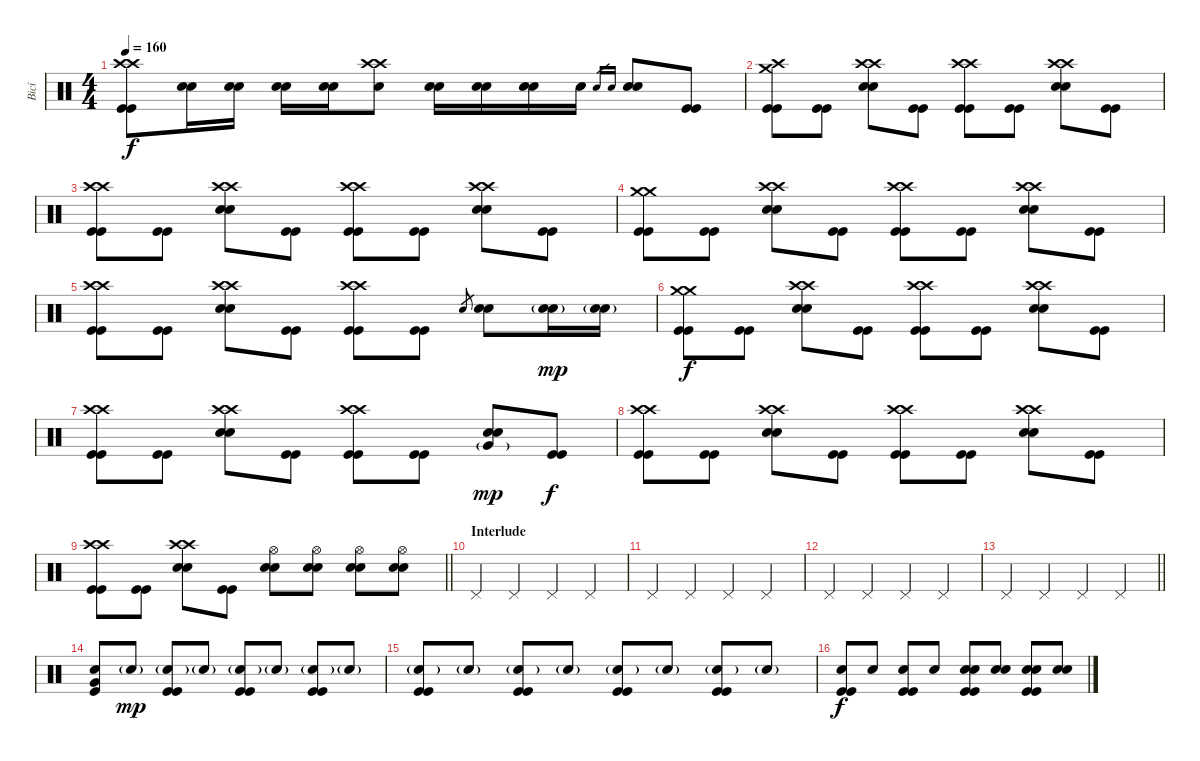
\track ("Bicí" "Bicí") {instrument percussion}
\staff {score}
\articulation defaults
\ts (4 4)
\tempo 160
\clef neutral
\ks c
("Crash high (hit)" "Crash high (hit)" "Kick (hit)" "Kick (hit)").8{dy f} ("Electric Snare (hit)" "Electric Snare (hit)").16 ("Electric Snare (hit)" "Electric Snare (hit)").16 ("Electric Snare (hit)" "Electric Snare (hit)").16 ("Electric Snare (hit)" "Electric Snare (hit)").16 ("Crash high (hit)" "Crash high (hit)" "Snare (hit)").8 ("Electric Snare (hit)" "Electric Snare (hit)").16 ("Electric Snare (hit)" "Electric Snare (hit)").16 ("Electric Snare (hit)" "Electric Snare (hit)").16 "Snare (hit)".16 "Electric Snare (hit)".16{gr} "Electric Snare (hit)".16{gr} ("Electric Snare (hit)" "Electric Snare (hit)").8 ("Kick (hit)" "Kick (hit)").8 |
("Crash medium (hit)" "Crash high (hit)" "Kick (hit)" "Kick (hit)").8 ("Kick (hit)" "Kick (hit)").8 ("Crash high (hit)" "Crash high (hit)" "Electric Snare (hit)" "Electric Snare (hit)").8 ("Kick (hit)" "Kick (hit)").8 ("Crash high (hit)" "Crash high (hit)" "Kick (hit)" "Kick (hit)").8 ("Kick (hit)" "Kick (hit)").8 ("Crash high (hit)" "Crash high (hit)" "Electric Snare (hit)" "Electric Snare (hit)").8 ("Kick (hit)" "Kick (hit)").8 |
("Crash high (hit)" "Crash high (hit)" "Kick (hit)" "Kick (hit)").8 ("Kick (hit)" "Kick (hit)").8 ("Crash high (hit)" "Crash high (hit)" "Electric Snare (hit)" "Electric Snare (hit)").8 ("Kick (hit)" "Kick (hit)").8 ("Crash high (hit)" "Crash high (hit)" "Kick (hit)" "Kick (hit)").8 ("Kick (hit)" "Kick (hit)").8 ("Crash high (hit)" "Crash high (hit)" "Electric Snare (hit)" "Electric Snare (hit)").8 ("Kick (hit)" "Kick (hit)").8 |
("Crash medium (hit)" "Crash medium (hit)" "Kick (hit)" "Kick (hit)").8 ("Kick (hit)" "Kick (hit)").8 ("Crash high (hit)" "Crash high (hit)" "Electric Snare (hit)" "Electric Snare (hit)").8 ("Kick (hit)" "Kick (hit)").8 ("Crash high (hit)" "Crash high (hit)" "Kick (hit)" "Kick (hit)").8 ("Kick (hit)" "Kick (hit)").8 ("Crash high (hit)" "Crash high (hit)" "Electric Snare (hit)" "Electric Snare (hit)").8 ("Kick (hit)" "Kick (hit)").8 |
("Crash high (hit)" "Crash high (hit)" "Kick (hit)" "Kick (hit)").8 ("Kick (hit)" "Kick (hit)").8 ("Crash high (hit)" "Crash high (hit)" "Electric Snare (hit)" "Electric Snare (hit)").8 ("Kick (hit)" "Kick (hit)").8 ("Crash high (hit)" "Crash high (hit)" "Kick (hit)" "Kick (hit)").8 ("Kick (hit)" "Kick (hit)").8 "Electric Snare (hit)".8{gr} ("Electric Snare (hit)" "Electric Snare (hit)").8 ("Electric Snare (hit)"{g} "Electric Snare (hit)").16{dy mp} ("Electric Snare (hit)"{g} "Electric Snare (hit)").16 |
("Crash medium (hit)" "Crash medium (hit)" "Kick (hit)" "Kick (hit)").8{dy f} ("Kick (hit)" "Kick (hit)").8 ("Crash high (hit)" "Crash high (hit)" "Electric Snare (hit)" "Electric Snare (hit)").8 ("Kick (hit)" "Kick (hit)").8 ("Crash high (hit)" "Crash high (hit)" "Kick (hit)" "Kick (hit)").8 ("Kick (hit)" "Kick (hit)").8 ("Crash high (hit)" "Crash high (hit)" "Electric Snare (hit)" "Electric Snare (hit)").8 ("Kick (hit)" "Kick (hit)").8 |
("Crash high (hit)" "Crash high (hit)" "Kick (hit)" "Kick (hit)").8 ("Kick (hit)" "Kick (hit)").8 ("Crash high (hit)" "Crash high (hit)" "Electric Snare (hit)" "Electric Snare (hit)").8 ("Kick (hit)" "Kick (hit)").8 ("Crash high (hit)" "Crash high (hit)" "Kick (hit)" "Kick (hit)").8 ("Kick (hit)" "Kick (hit)").8 ("Very Low Tom (hit)"{g} "Electric Snare (hit)" "Electric Snare (hit)").8{dy mp} ("Kick (hit)" "Kick (hit)").8{dy f} |
("Crash high (hit)" "Crash high (hit)" "Kick (hit)" "Kick (hit)").8 ("Kick (hit)" "Kick (hit)").8 ("Crash high (hit)" "Crash high (hit)" "Electric Snare (hit)" "Electric Snare (hit)").8 ("Kick (hit)" "Kick (hit)").8 ("Crash high (hit)" "Crash high (hit)" "Kick (hit)" "Kick (hit)").8 ("Kick (hit)" "Kick (hit)").8 ("Crash high (hit)" "Crash high (hit)" "Electric Snare (hit)" "Electric Snare (hit)").8 ("Kick (hit)" "Kick (hit)").8 |
\barLineRight lightlight
("Crash high (hit)" "Crash high (hit)" "Kick (hit)" "Kick (hit)").8 ("Kick (hit)" "Kick (hit)").8 ("Crash high (hit)" "Crash high (hit)" "Electric Snare (hit)" "Electric Snare (hit)").8 ("Kick (hit)" "Kick (hit)").8 ("Hi-Hat (open)" "Electric Snare (hit)" "Electric Snare (hit)").8 ("Hi-Hat (open)" "Electric Snare (hit)" "Electric Snare (hit)").8 ("Hi-Hat (open)" "Electric Snare (hit)" "Electric Snare (hit)").8 ("Hi-Hat (open)" "Electric Snare (hit)" "Electric Snare (hit)").8 |
\section ("" "Interlude")
"Pedal Hi-Hat (hit)".4 "Pedal Hi-Hat (hit)".4 "Pedal Hi-Hat (hit)".4 "Pedal Hi-Hat (hit)".4 |
"Pedal Hi-Hat (hit)".4 "Pedal Hi-Hat (hit)".4 "Pedal Hi-Hat (hit)".4 "Pedal Hi-Hat (hit)".4 |
"Pedal Hi-Hat (hit)".4 "Pedal Hi-Hat (hit)".4 "Pedal Hi-Hat (hit)".4 "Pedal Hi-Hat (hit)".4 |
\barLineRight lightlight "Pedal Hi-Hat (hit)".4 "Pedal Hi-Hat (hit)".4 "Pedal Hi-Hat (hit)".4 "Pedal Hi-Hat (hit)".4
|
\section ("" "")
("Kick (hit)" "Very Low Tom (hit)" "Electric Snare (hit)").8 "Electric Snare (hit)"{g}.8{dy mp} ("Electric Snare (hit)"{g} "Kick (hit)" "Kick (hit)").8 "Electric Snare (hit)"{g}.8 ("Electric Snare (hit)"{g} "Kick (hit)" "Kick (hit)").8 "Electric Snare (hit)"{g}.8 ("Electric Snare (hit)"{g} "Kick (hit)" "Kick (hit)").8 "Electric Snare (hit)"{g}.8 |
("Electric Snare (hit)"{g} "Kick (hit)" "Kick (hit)").8 "Electric Snare (hit)"{g}.8 ("Electric Snare (hit)"{g} "Kick (hit)" "Kick (hit)").8 "Electric Snare (hit)"{g}.8 ("Electric Snare (hit)"{g} "Kick (hit)" "Kick (hit)").8 "Electric Snare (hit)"{g}.8 ("Electric Snare (hit)"{g} "Kick (hit)" "Kick (hit)").8 "Electric Snare (hit)"{g}.8 |
("Electric Snare (hit)" "Kick (hit)" "Kick (hit)").8{dy f} "Electric Snare (hit)".8 ("Electric Snare (hit)" "Kick (hit)" "Kick (hit)").8 "Electric Snare (hit)".8 ("Electric Snare (hit)" "Electric Snare (hit)" "Kick (hit)" "Kick (hit)").8 ("Electric Snare (hit)" "Electric Snare (hit)").8 ("Electric Snare (hit)" "Electric Snare (hit)" "Kick (hit)" "Kick (hit)").8 ("Electric Snare (hit)" "Electric Snare (hit)").8
